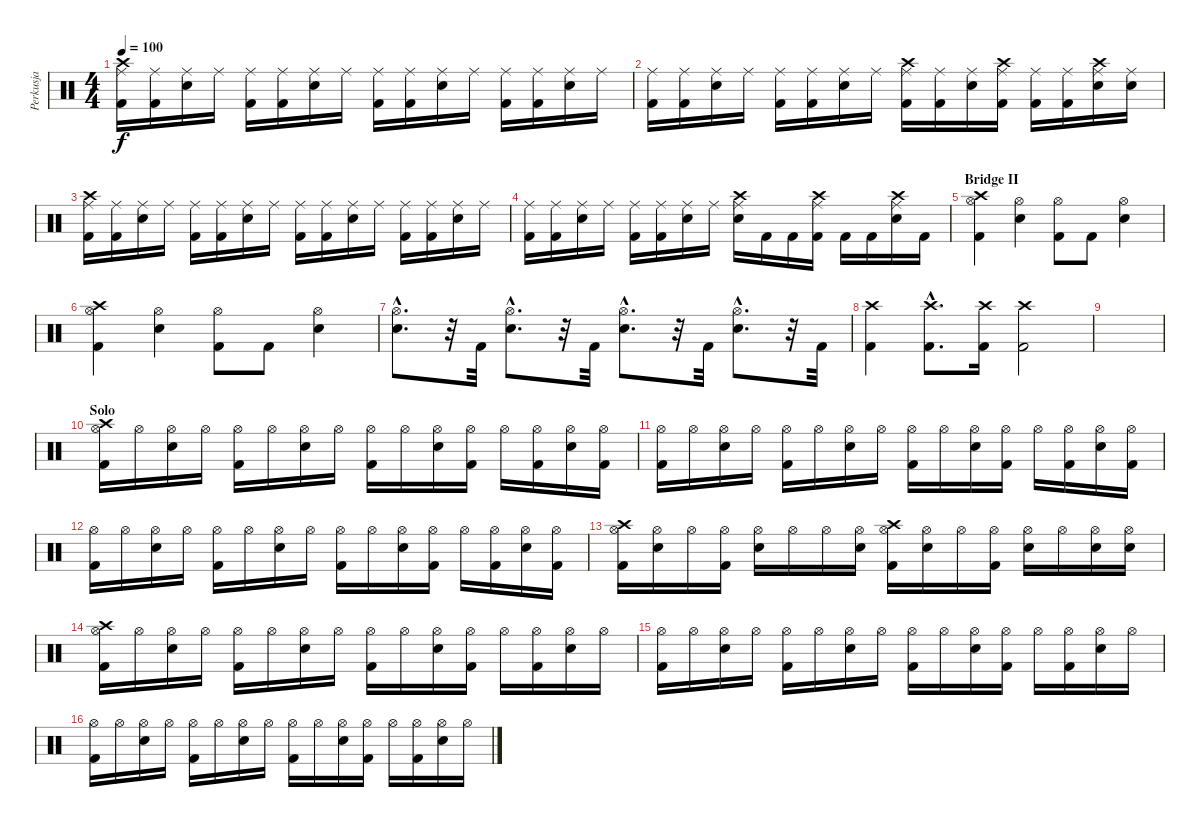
\track ("Perkusja" "Perkusja") {instrument percussion}
\staff {score}
\articulation defaults
\ts (4 4)
\tempo 100
\clef neutral
\ks c
("Kick (hit) 2" "Ride (middle)" "Crash high (hit)").16{dy f} ("Kick (hit) 2" "Ride (middle)").16 ("Snare (hit) 2" "Ride (middle)").16 "Ride (middle)".16 ("Kick (hit) 2" "Ride (middle)").16 ("Kick (hit) 2" "Ride (middle)").16 ("Snare (hit) 2" "Ride (middle)").16 "Ride (middle)".16 ("Kick (hit) 2" "Ride (middle)").16 ("Kick (hit) 2" "Ride (middle)").16 ("Snare (hit) 2" "Ride (middle)").16 "Ride (middle)".16 ("Kick (hit) 2" "Ride (middle)").16 ("Kick (hit) 2" "Ride (middle)").16 ("Snare (hit) 2" "Ride (middle)").16 "Ride (middle)".16 |
("Kick (hit) 2" "Ride (middle)").16 ("Kick (hit) 2" "Ride (middle)").16 ("Snare (hit) 2" "Ride (middle)").16 "Ride (middle)".16 ("Kick (hit) 2" "Ride (middle)").16 ("Kick (hit) 2" "Ride (middle)").16 ("Snare (hit) 2" "Ride (middle)").16 "Ride (middle)".16 ("Kick (hit) 2" "Ride (middle)" "Crash high (hit)").16 ("Kick (hit) 2" "Ride (middle)").16 ("Snare (hit) 2" "Ride (middle)").16 ("Kick (hit) 2" "Ride (middle)" "Crash high (hit)").16 ("Kick (hit) 2" "Ride (middle)").16 ("Kick (hit) 2" "Ride (middle)").16 ("Snare (hit) 2" "Ride (middle)" "Crash high (hit)").16 ("Snare (hit) 2" "Ride (middle)").16 |
("Kick (hit) 2" "Ride (middle)" "Crash high (hit)").16 ("Kick (hit) 2" "Ride (middle)").16 ("Snare (hit) 2" "Ride (middle)").16 "Ride (middle)".16 ("Kick (hit) 2" "Ride (middle)").16 ("Kick (hit) 2" "Ride (middle)").16 ("Snare (hit) 2" "Ride (middle)").16 "Ride (middle)".16 ("Kick (hit) 2" "Ride (middle)").16 ("Kick (hit) 2" "Ride (middle)").16 ("Snare (hit) 2" "Ride (middle)").16 "Ride (middle)".16 ("Kick (hit) 2" "Ride (middle)").16 ("Kick (hit) 2" "Ride (middle)").16 ("Snare (hit) 2" "Ride (middle)").16 "Ride (middle)".16 |
("Kick (hit) 2" "Ride (middle)").16 ("Kick (hit) 2" "Ride (middle)").16 ("Snare (hit) 2" "Ride (middle)").16 "Ride (middle)".16 ("Kick (hit) 2" "Ride (middle)").16 ("Kick (hit) 2" "Ride (middle)").16 ("Snare (hit) 2" "Ride (middle)").16 "Ride (middle)".16 ("Snare (hit) 2" "Ride (middle)" "Crash high (hit)").16 "Kick (hit) 2".16 "Kick (hit) 2".16 ("Kick (hit) 2" "Ride (middle)" "Crash high (hit)").16 "Kick (hit) 2".16 "Kick (hit) 2".16 ("Snare (hit) 2" "Ride (middle)" "Crash high (hit)").16 "Kick (hit) 2".16 |
\section ("" "Bridge II")
("Kick (hit) 2" "Hi-Hat (open)" "Crash high (hit)").4 ("Snare (hit) 2" "Hi-Hat (open)").4 ("Kick (hit) 2" "Hi-Hat (open)").8 "Kick (hit) 2".8 ("Snare (hit) 2" "Hi-Hat (open)").4 |
("Kick (hit) 2" "Hi-Hat (open)" "Crash high (hit)").4 ("Snare (hit) 2" "Hi-Hat (open)").4 ("Kick (hit) 2" "Hi-Hat (open)").8 "Kick (hit) 2".8 ("Snare (hit) 2" "Hi-Hat (open)").4 |
("Snare (hit) 2"{hac} "Hi-Hat (open)"{hac}).8{d} r.32 "Kick (hit) 2".32 ("Snare (hit) 2"{hac} "Hi-Hat (open)"{hac}).8{d} r.32 "Kick (hit) 2".32 ("Snare (hit) 2"{hac} "Hi-Hat (open)"{hac}).8{d} r.32 "Kick (hit) 2".32 ("Snare (hit) 2"{hac} "Hi-Hat (open)"{hac}).8{d} r.32 "Kick (hit) 2".32 |
("Kick (hit) 2" "Crash high (hit)").4 ("Kick (hit) 2"{hac} "Crash high (hit)"{hac}).8{d} ("Kick (hit) 2" "Crash high (hit)").16 ("Kick (hit) 2" "Crash high (hit)").2 |
|
\section ("" "Solo")
("Kick (hit) 2" "Hi-Hat (open)" "Crash high (hit)").16 "Hi-Hat (open)".16 ("Snare (hit) 2" "Hi-Hat (open)").16 "Hi-Hat (open)".16 ("Kick (hit) 2" "Hi-Hat (open)").16 "Hi-Hat (open)".16 ("Snare (hit) 2" "Hi-Hat (open)").16 "Hi-Hat (open)".16 ("Kick (hit) 2" "Hi-Hat (open)").16 "Hi-Hat (open)".16 ("Snare (hit) 2" "Hi-Hat (open)").16 ("Kick (hit) 2" "Hi-Hat (open)").16 "Hi-Hat (open)".16 ("Kick (hit) 2" "Hi-Hat (open)").16 ("Snare (hit) 2" "Hi-Hat (open)").16 ("Kick (hit) 2" "Hi-Hat (open)").16 |
("Kick (hit) 2" "Hi-Hat (open)").16 "Hi-Hat (open)".16 ("Snare (hit) 2" "Hi-Hat (open)").16 "Hi-Hat (open)".16 ("Kick (hit) 2" "Hi-Hat (open)").16 "Hi-Hat (open)".16 ("Snare (hit) 2" "Hi-Hat (open)").16 "Hi-Hat (open)".16 ("Kick (hit) 2" "Hi-Hat (open)").16 "Hi-Hat (open)".16 ("Snare (hit) 2" "Hi-Hat (open)").16 ("Kick (hit) 2" "Hi-Hat (open)").16 "Hi-Hat (open)".16 ("Kick (hit) 2" "Hi-Hat (open)").16 ("Snare (hit) 2" "Hi-Hat (open)").16 ("Kick (hit) 2" "Hi-Hat (open)").16 |
("Kick (hit) 2" "Hi-Hat (open)").16 "Hi-Hat (open)".16 ("Snare (hit) 2" "Hi-Hat (open)").16 "Hi-Hat (open)".16 ("Kick (hit) 2" "Hi-Hat (open)").16 "Hi-Hat (open)".16 ("Snare (hit) 2" "Hi-Hat (open)").16 "Hi-Hat (open)".16 ("Kick (hit) 2" "Hi-Hat (open)").16 "Hi-Hat (open)".16 ("Snare (hit) 2" "Hi-Hat (open)").16 ("Kick (hit) 2" "Hi-Hat (open)").16 "Hi-Hat (open)".16 ("Kick (hit) 2" "Hi-Hat (open)").16 ("Snare (hit) 2" "Hi-Hat (open)").16 ("Kick (hit) 2" "Hi-Hat (open)").16 |
("Kick (hit) 2" "Hi-Hat (open)" "Crash high (hit)").16 ("Snare (hit) 2" "Hi-Hat (open)").16 "Hi-Hat (open)".16 ("Kick (hit) 2" "Hi-Hat (open)").16 ("Snare (hit) 2" "Hi-Hat (open)").16 "Hi-Hat (open)".16 "Hi-Hat (open)".16 ("Snare (hit) 2" "Hi-Hat (open)").16 ("Kick (hit) 2" "Hi-Hat (open)" "Crash high (hit)").16 ("Snare (hit) 2" "Hi-Hat (open)").16 "Hi-Hat (open)".16 ("Kick (hit) 2" "Hi-Hat (open)").16 ("Snare (hit) 2" "Hi-Hat (open)").16 "Hi-Hat (open)".16 ("Snare (hit) 2" "Hi-Hat (open)").16 ("Snare (hit) 2" "Hi-Hat (open)").16 |
("Kick (hit) 2" "Hi-Hat (open)" "Crash high (hit)").16 "Hi-Hat (open)".16 ("Snare (hit) 2" "Hi-Hat (open)").16 "Hi-Hat (open)".16 ("Kick (hit) 2" "Hi-Hat (open)").16 "Hi-Hat (open)".16 ("Snare (hit) 2" "Hi-Hat (open)").16 "Hi-Hat (open)".16 ("Kick (hit) 2" "Hi-Hat (open)").16 "Hi-Hat (open)".16 ("Snare (hit) 2" "Hi-Hat (open)").16 ("Kick (hit) 2" "Hi-Hat (open)").16 "Hi-Hat (open)".16 ("Kick (hit) 2" "Hi-Hat (open)").16 ("Snare (hit) 2" "Hi-Hat (open)").16 "Hi-Hat (open)".16 |
("Kick (hit) 2" "Hi-Hat (open)").16 "Hi-Hat (open)".16 ("Snare (hit) 2" "Hi-Hat (open)").16 "Hi-Hat (open)".16 ("Kick (hit) 2" "Hi-Hat (open)").16 "Hi-Hat (open)".16 ("Snare (hit) 2" "Hi-Hat (open)").16 "Hi-Hat (open)".16 ("Kick (hit) 2" "Hi-Hat (open)").16 "Hi-Hat (open)".16 ("Snare (hit) 2" "Hi-Hat (open)").16 ("Kick (hit) 2" "Hi-Hat (open)").16 "Hi-Hat (open)".16 ("Kick (hit) 2" "Hi-Hat (open)").16 ("Snare (hit) 2" "Hi-Hat (open)").16 "Hi-Hat (open)".16 |
("Kick (hit) 2" "Hi-Hat (open)").16 "Hi-Hat (open)".16 ("Snare (hit) 2" "Hi-Hat (open)").16 "Hi-Hat (open)".16 ("Kick (hit) 2" "Hi-Hat (open)").16 "Hi-Hat (open)".16 ("Snare (hit) 2" "Hi-Hat (open)").16 "Hi-Hat (open)".16 ("Kick (hit) 2" "Hi-Hat (open)").16 "Hi-Hat (open)".16 ("Snare (hit) 2" "Hi-Hat (open)").16 ("Kick (hit) 2" "Hi-Hat (open)").16 "Hi-Hat (open)".16 ("Kick (hit) 2" "Hi-Hat (open)").16 ("Snare (hit) 2" "Hi-Hat (open)").16 "Hi-Hat (open)".16
